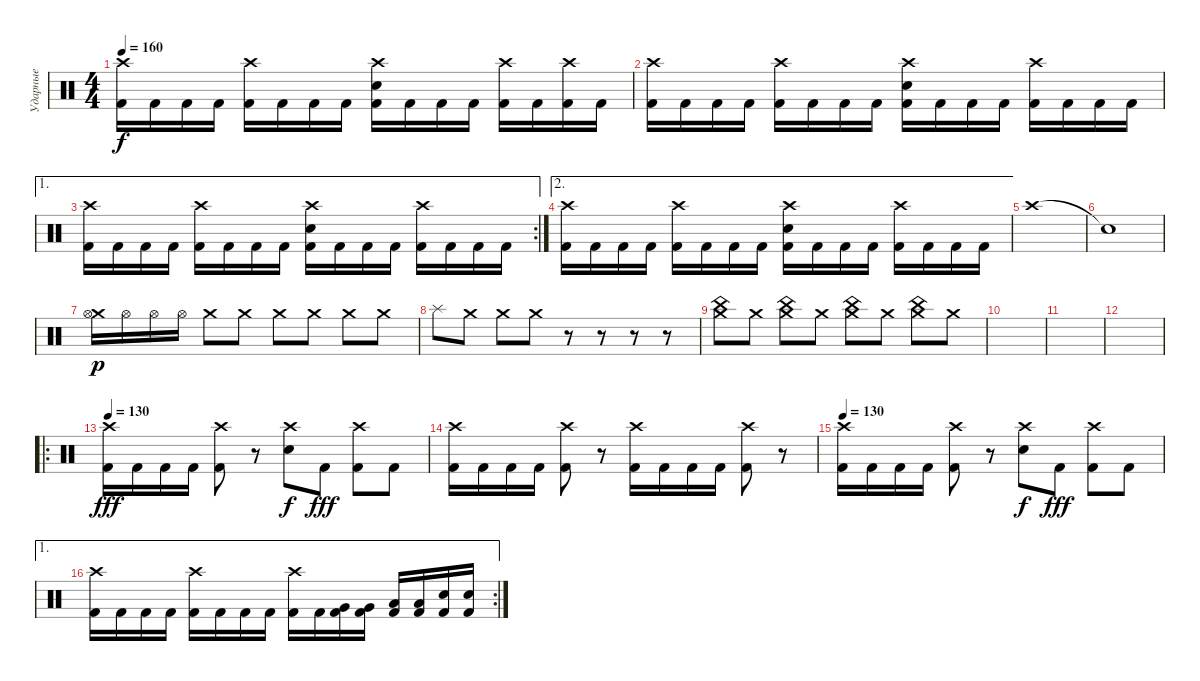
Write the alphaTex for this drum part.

\track ("Ударные" "Ударные") {instrument percussion}
\staff {score}
\articulation defaults
\ts (4 4)
\tempo 160
\clef neutral
\ks c
("Crash high (hit)" "Kick (hit) 2").16{dy f} "Kick (hit) 2".16 "Kick (hit) 2".16 "Kick (hit) 2".16 ("Crash high (hit)" "Kick (hit) 2").16 "Kick (hit) 2".16 "Kick (hit) 2".16 "Kick (hit) 2".16 ("Crash high (hit)" "Snare (hit) 2" "Kick (hit) 2").16 "Kick (hit) 2".16 "Kick (hit) 2".16 "Kick (hit) 2".16 ("Crash high (hit)" "Kick (hit) 2").16 "Kick (hit) 2".16 ("Crash high (hit)" "Kick (hit) 2").16 "Kick (hit) 2".16 |
("Crash high (hit)" "Kick (hit) 2").16 "Kick (hit) 2".16 "Kick (hit) 2".16 "Kick (hit) 2".16 ("Crash high (hit)" "Kick (hit) 2").16 "Kick (hit) 2".16 "Kick (hit) 2".16 "Kick (hit) 2".16 ("Crash high (hit)" "Snare (hit) 2" "Kick (hit) 2").16 "Kick (hit) 2".16 "Kick (hit) 2".16 "Kick (hit) 2".16 ("Crash high (hit)" "Kick (hit) 2").16 "Kick (hit) 2".16 "Kick (hit) 2".16 "Kick (hit) 2".16 |
\ae 1
\rc 2
("Crash high (hit)" "Kick (hit) 2").16 "Kick (hit) 2".16 "Kick (hit) 2".16 "Kick (hit) 2".16 ("Crash high (hit)" "Kick (hit) 2").16 "Kick (hit) 2".16 "Kick (hit) 2".16 "Kick (hit) 2".16 ("Crash high (hit)" "Snare (hit) 2" "Kick (hit) 2").16 "Kick (hit) 2".16 "Kick (hit) 2".16 "Kick (hit) 2".16 ("Crash high (hit)" "Kick (hit) 2").16 "Kick (hit) 2".16 "Kick (hit) 2".16 "Kick (hit) 2".16 |
\ae 2
("Crash high (hit)" "Kick (hit) 2").16 "Kick (hit) 2".16 "Kick (hit) 2".16 "Kick (hit) 2".16 ("Crash high (hit)" "Kick (hit) 2").16 "Kick (hit) 2".16 "Kick (hit) 2".16 "Kick (hit) 2".16 ("Crash high (hit)" "Snare (hit) 2" "Kick (hit) 2").16 "Kick (hit) 2".16 "Kick (hit) 2".16 "Kick (hit) 2".16 ("Crash high (hit)" "Kick (hit) 2").16 "Kick (hit) 2".16 "Kick (hit) 2".16 "Kick (hit) 2".16 |
"Crash high (hit)".1 |
"Snare (hit)"{t}.1 |
("Crash medium (hit)" "Hi-Hat (open)").16{dy p} "Hi-Hat (open)".16 "Hi-Hat (open)".16 "Hi-Hat (open)".16 "Crash medium (hit)".8 "Crash medium (hit)".8 "Crash medium (hit)".8 "Crash medium (hit)".8 "Crash medium (hit)".8 "Crash medium (hit)".8 |
"Splash (hit)".8 "Crash medium (hit)".8 "Crash medium (hit)".8 "Crash medium (hit)".8 r.8 r.8 r.8 r.8 |
("Crash medium (hit)" "China (hit)").8 "Crash medium (hit)".8 ("Crash medium (hit)" "China (hit)").8 "Crash medium (hit)".8 ("Crash medium (hit)" "China (hit)").8 "Crash medium (hit)".8 ("Crash medium (hit)" "China (hit)").8 "Crash medium (hit)".8 |
|
|
|
\ro
\tempo 130
("Crash high (hit)" "Kick (hit) 2").16{dy fff} "Kick (hit) 2".16 "Kick (hit) 2".16 "Kick (hit) 2".16 ("Crash high (hit)" "Kick (hit) 2").8 r.8 ("Crash high (hit)" "Snare (hit) 2").8{dy f} "Kick (hit) 2".8{dy fff} ("Crash high (hit)" "Kick (hit) 2").8 "Kick (hit) 2".8 |
("Crash high (hit)" "Kick (hit) 2").16 "Kick (hit) 2".16 "Kick (hit) 2".16 "Kick (hit) 2".16 ("Crash high (hit)" "Kick (hit) 2").8 r.8 ("Crash high (hit)" "Kick (hit) 2").16 "Kick (hit) 2".16 "Kick (hit) 2".16 "Kick (hit) 2".16 ("Crash high (hit)" "Kick (hit) 2").8 r.8 |
\tempo 130
("Crash high (hit)" "Kick (hit) 2").16 "Kick (hit) 2".16 "Kick (hit) 2".16 "Kick (hit) 2".16 ("Crash high (hit)" "Kick (hit) 2").8 r.8 ("Crash high (hit)" "Snare (hit) 2").8{dy f} "Kick (hit) 2".8{dy fff} ("Crash high (hit)" "Kick (hit) 2").8 "Kick (hit) 2".8 |
\ae 1
\rc 2
("Crash high (hit)" "Kick (hit) 2").16 "Kick (hit) 2".16 "Kick (hit) 2".16 "Kick (hit) 2".16 ("Crash high (hit)" "Kick (hit) 2").16 "Kick (hit) 2".16 "Kick (hit) 2".16 "Kick (hit) 2".16 ("Crash high (hit)" "Kick (hit) 2").16 "Kick (hit) 2".16 ("Very Low Tom (hit)" "Kick (hit) 2").16 ("Very Low Tom (hit)" "Kick (hit) 2").16 ("Low Floor Tom (hit)" "Kick (hit) 2").16 ("Low Floor Tom (hit)" "Kick (hit) 2").16 ("Snare (hit) 2" "Kick (hit) 2").16 ("Snare (hit) 2" "Kick (hit) 2").16
